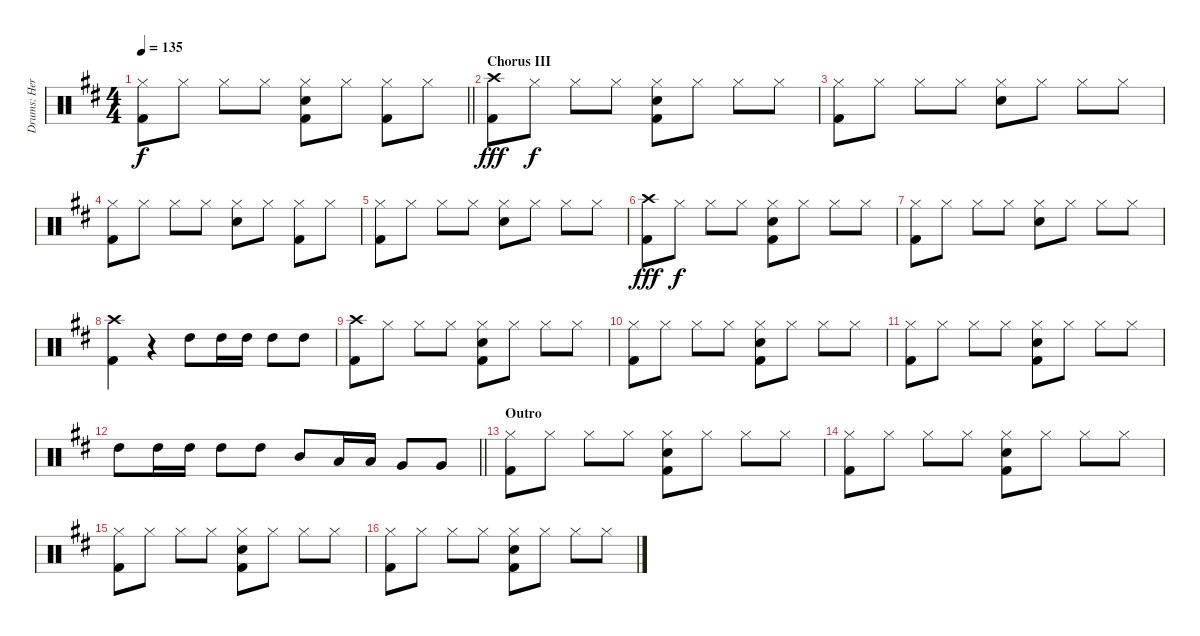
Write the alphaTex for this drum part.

\track ("Drums: Herman" "Drums: Her") {instrument percussion}
\staff {score}
\articulation defaults
\ts (4 4)
\tempo 135
\clef neutral
\barLineRight lightlight
\ks d
("Hi-Hat (closed)" "Kick (hit) 2").8{dy f} "Hi-Hat (closed)".8 "Hi-Hat (closed)".8 "Hi-Hat (closed)".8 ("Hi-Hat (closed)" "Snare (hit) 2" "Kick (hit) 2").8 "Hi-Hat (closed)".8 ("Hi-Hat (closed)" "Kick (hit) 2").8 "Hi-Hat (closed)".8 |
\section ("" "Chorus III")
("Crash high (hit)" "Kick (hit) 2").8{dy fff} "Hi-Hat (closed)".8{dy f} "Hi-Hat (closed)".8 "Hi-Hat (closed)".8 ("Hi-Hat (closed)" "Snare (hit) 2" "Kick (hit) 2").8 "Hi-Hat (closed)".8 "Hi-Hat (closed)".8 "Hi-Hat (closed)".8 |
("Hi-Hat (closed)" "Kick (hit) 2").8 "Hi-Hat (closed)".8 "Hi-Hat (closed)".8 "Hi-Hat (closed)".8 ("Hi-Hat (closed)" "Snare (hit) 2").8 "Hi-Hat (closed)".8 "Hi-Hat (closed)".8 "Hi-Hat (closed)".8 |
("Hi-Hat (closed)" "Kick (hit) 2").8 "Hi-Hat (closed)".8 "Hi-Hat (closed)".8 "Hi-Hat (closed)".8 ("Hi-Hat (closed)" "Snare (hit) 2").8 "Hi-Hat (closed)".8 ("Hi-Hat (closed)" "Kick (hit) 2").8 "Hi-Hat (closed)".8 |
("Hi-Hat (closed)" "Kick (hit) 2").8 "Hi-Hat (closed)".8 "Hi-Hat (closed)".8 "Hi-Hat (closed)".8 ("Hi-Hat (closed)" "Snare (hit) 2").8 "Hi-Hat (closed)".8 "Hi-Hat (closed)".8 "Hi-Hat (closed)".8 |
("Crash high (hit)" "Kick (hit) 2").8{dy fff} "Hi-Hat (closed)".8{dy f} "Hi-Hat (closed)".8 "Hi-Hat (closed)".8 ("Hi-Hat (closed)" "Snare (hit) 2" "Kick (hit) 2").8 "Hi-Hat (closed)".8 "Hi-Hat (closed)".8 "Hi-Hat (closed)".8 |
("Hi-Hat (closed)" "Kick (hit) 2").8 "Hi-Hat (closed)".8 "Hi-Hat (closed)".8 "Hi-Hat (closed)".8 ("Hi-Hat (closed)" "Snare (hit) 2").8 "Hi-Hat (closed)".8 "Hi-Hat (closed)".8 "Hi-Hat (closed)".8 |
("Crash high (hit)" "Kick (hit) 2").4 r.4 "High Tom (hit)".8 "High Tom (hit)".16 "High Tom (hit)".16 "High Tom (hit)".8 "High Tom (hit)".8 |
("Crash high (hit)" "Kick (hit) 2").8 "Hi-Hat (closed)".8 "Hi-Hat (closed)".8 "Hi-Hat (closed)".8 ("Hi-Hat (closed)" "Snare (hit) 2" "Kick (hit) 2").8 "Hi-Hat (closed)".8 "Hi-Hat (closed)".8 "Hi-Hat (closed)".8 |
("Hi-Hat (closed)" "Kick (hit) 2").8 "Hi-Hat (closed)".8 "Hi-Hat (closed)".8 "Hi-Hat (closed)".8 ("Hi-Hat (closed)" "Snare (hit) 2" "Kick (hit) 2").8 "Hi-Hat (closed)".8 "Hi-Hat (closed)".8 "Hi-Hat (closed)".8 |
("Hi-Hat (closed)" "Kick (hit) 2").8 "Hi-Hat (closed)".8 "Hi-Hat (closed)".8 "Hi-Hat (closed)".8 ("Hi-Hat (closed)" "Snare (hit) 2" "Kick (hit) 2").8 "Hi-Hat (closed)".8 "Hi-Hat (closed)".8 "Hi-Hat (closed)".8 |
\barLineRight lightlight "High Tom (hit)".8 "High Tom (hit)".16 "High Tom (hit)".16 "High Tom (hit)".8 "High Tom (hit)".8 "Mid Tom (hit)".8 "Low Tom (hit)".16 "Low Tom (hit)".16 "Very Low Tom (hit)".8 "Very Low Tom (hit)".8
|
\section ("" "Outro")
("Hi-Hat (closed)" "Kick (hit) 2").8 "Hi-Hat (closed)".8 "Hi-Hat (closed)".8 "Hi-Hat (closed)".8 ("Hi-Hat (closed)" "Snare (hit) 2" "Kick (hit) 2").8 "Hi-Hat (closed)".8 "Hi-Hat (closed)".8 "Hi-Hat (closed)".8 |
("Hi-Hat (closed)" "Kick (hit) 2").8 "Hi-Hat (closed)".8 "Hi-Hat (closed)".8 "Hi-Hat (closed)".8 ("Hi-Hat (closed)" "Snare (hit) 2" "Kick (hit) 2").8 "Hi-Hat (closed)".8 "Hi-Hat (closed)".8 "Hi-Hat (closed)".8 |
("Hi-Hat (closed)" "Kick (hit) 2").8 "Hi-Hat (closed)".8 "Hi-Hat (closed)".8 "Hi-Hat (closed)".8 ("Hi-Hat (closed)" "Snare (hit) 2" "Kick (hit) 2").8 "Hi-Hat (closed)".8 "Hi-Hat (closed)".8 "Hi-Hat (closed)".8 |
("Hi-Hat (closed)" "Kick (hit) 2").8 "Hi-Hat (closed)".8 "Hi-Hat (closed)".8 "Hi-Hat (closed)".8 ("Hi-Hat (closed)" "Snare (hit) 2" "Kick (hit) 2").8 "Hi-Hat (closed)".8 "Hi-Hat (closed)".8 "Hi-Hat (closed)".8
